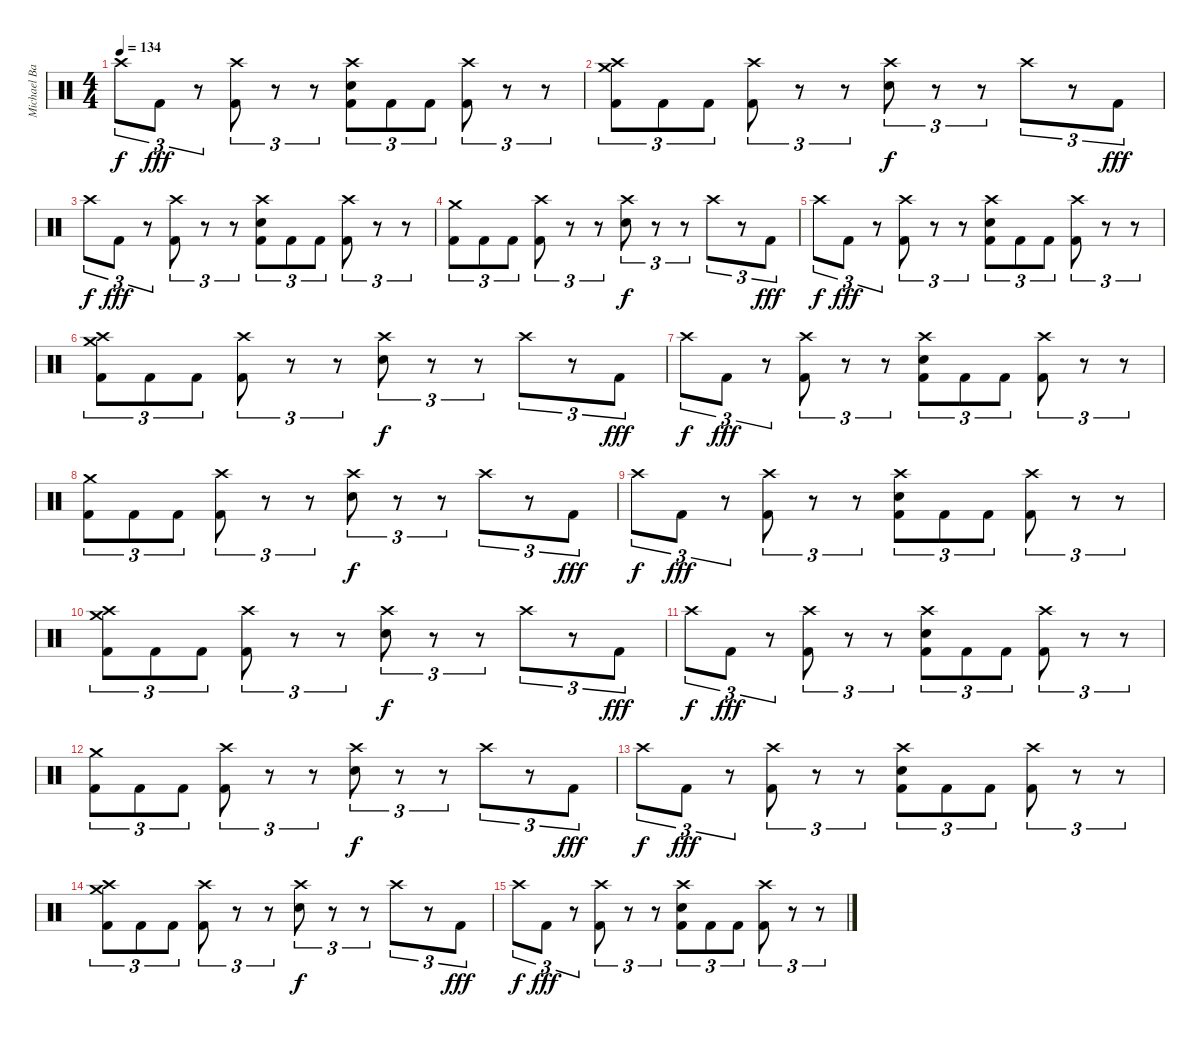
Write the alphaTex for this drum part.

\track ("Michael Bartlett " "Michael Ba") {instrument percussion}
\staff {score}
\articulation defaults
\ts (4 4)
\tempo 134
\clef neutral
\ks c "Crash high (hit)".8{tu (3 2) dy f} "Kick (hit) 2".8{tu (3 2) dy fff}
r.8{tu (3 2)} ("Crash high (hit)" "Kick (hit) 2").8{tu (3 2)} r.8{tu (3 2)} r.8{tu (3 2)} ("Crash high (hit)" "Electric Snare (hit)" "Kick (hit) 2").8{tu (3 2)} "Kick (hit) 2".8{tu (3 2)} "Kick (hit) 2".8{tu (3 2)} ("Crash high (hit)" "Kick (hit) 2").8{tu (3 2)} r.8{tu (3 2)} r.8{tu (3 2)} |
("Crash high (hit)" "Crash medium (hit)" "Kick (hit) 2").8{tu (3 2)} "Kick (hit) 2".8{tu (3 2)} "Kick (hit) 2".8{tu (3 2)} ("Crash high (hit)" "Kick (hit) 2").8{tu (3 2)} r.8{tu (3 2)} r.8{tu (3 2)} ("Crash high (hit)" "Electric Snare (hit)").8{tu (3 2) dy f} r.8{tu (3 2)} r.8{tu (3 2)} "Crash high (hit)".8{tu (3 2)} r.8{tu (3 2)} "Kick (hit) 2".8{tu (3 2) dy fff} |
"Crash high (hit)".8{tu (3 2) dy f} "Kick (hit) 2".8{tu (3 2) dy fff} r.8{tu (3 2)} ("Crash high (hit)" "Kick (hit) 2").8{tu (3 2)} r.8{tu (3 2)} r.8{tu (3 2)} ("Crash high (hit)" "Electric Snare (hit)" "Kick (hit) 2").8{tu (3 2)} "Kick (hit) 2".8{tu (3 2)} "Kick (hit) 2".8{tu (3 2)} ("Crash high (hit)" "Kick (hit) 2").8{tu (3 2)} r.8{tu (3 2)} r.8{tu (3 2)} |
("Crash medium (hit)" "Kick (hit) 2").8{tu (3 2)} "Kick (hit) 2".8{tu (3 2)} "Kick (hit) 2".8{tu (3 2)} ("Crash high (hit)" "Kick (hit) 2").8{tu (3 2)} r.8{tu (3 2)} r.8{tu (3 2)} ("Crash high (hit)" "Electric Snare (hit)").8{tu (3 2) dy f} r.8{tu (3 2)} r.8{tu (3 2)} "Crash high (hit)".8{tu (3 2)} r.8{tu (3 2)} "Kick (hit) 2".8{tu (3 2) dy fff} |
"Crash high (hit)".8{tu (3 2) dy f} "Kick (hit) 2".8{tu (3 2) dy fff} r.8{tu (3 2)} ("Crash high (hit)" "Kick (hit) 2").8{tu (3 2)} r.8{tu (3 2)} r.8{tu (3 2)} ("Crash high (hit)" "Electric Snare (hit)" "Kick (hit) 2").8{tu (3 2)} "Kick (hit) 2".8{tu (3 2)} "Kick (hit) 2".8{tu (3 2)} ("Crash high (hit)" "Kick (hit) 2").8{tu (3 2)} r.8{tu (3 2)} r.8{tu (3 2)} |
("Crash high (hit)" "Crash medium (hit)" "Kick (hit) 2").8{tu (3 2)} "Kick (hit) 2".8{tu (3 2)} "Kick (hit) 2".8{tu (3 2)} ("Crash high (hit)" "Kick (hit) 2").8{tu (3 2)} r.8{tu (3 2)} r.8{tu (3 2)} ("Crash high (hit)" "Electric Snare (hit)").8{tu (3 2) dy f} r.8{tu (3 2)} r.8{tu (3 2)} "Crash high (hit)".8{tu (3 2)} r.8{tu (3 2)} "Kick (hit) 2".8{tu (3 2) dy fff} |
"Crash high (hit)".8{tu (3 2) dy f} "Kick (hit) 2".8{tu (3 2) dy fff} r.8{tu (3 2)} ("Crash high (hit)" "Kick (hit) 2").8{tu (3 2)} r.8{tu (3 2)} r.8{tu (3 2)} ("Crash high (hit)" "Electric Snare (hit)" "Kick (hit) 2").8{tu (3 2)} "Kick (hit) 2".8{tu (3 2)} "Kick (hit) 2".8{tu (3 2)} ("Crash high (hit)" "Kick (hit) 2").8{tu (3 2)} r.8{tu (3 2)} r.8{tu (3 2)} |
("Crash medium (hit)" "Kick (hit) 2").8{tu (3 2)} "Kick (hit) 2".8{tu (3 2)} "Kick (hit) 2".8{tu (3 2)} ("Crash high (hit)" "Kick (hit) 2").8{tu (3 2)} r.8{tu (3 2)} r.8{tu (3 2)} ("Crash high (hit)" "Electric Snare (hit)").8{tu (3 2) dy f} r.8{tu (3 2)} r.8{tu (3 2)} "Crash high (hit)".8{tu (3 2)} r.8{tu (3 2)} "Kick (hit) 2".8{tu (3 2) dy fff} |
"Crash high (hit)".8{tu (3 2) dy f} "Kick (hit) 2".8{tu (3 2) dy fff} r.8{tu (3 2)} ("Crash high (hit)" "Kick (hit) 2").8{tu (3 2)} r.8{tu (3 2)} r.8{tu (3 2)} ("Crash high (hit)" "Electric Snare (hit)" "Kick (hit) 2").8{tu (3 2)} "Kick (hit) 2".8{tu (3 2)} "Kick (hit) 2".8{tu (3 2)} ("Crash high (hit)" "Kick (hit) 2").8{tu (3 2)} r.8{tu (3 2)} r.8{tu (3 2)} |
("Crash high (hit)" "Crash medium (hit)" "Kick (hit) 2").8{tu (3 2)} "Kick (hit) 2".8{tu (3 2)} "Kick (hit) 2".8{tu (3 2)} ("Crash high (hit)" "Kick (hit) 2").8{tu (3 2)} r.8{tu (3 2)} r.8{tu (3 2)} ("Crash high (hit)" "Electric Snare (hit)").8{tu (3 2) dy f} r.8{tu (3 2)} r.8{tu (3 2)} "Crash high (hit)".8{tu (3 2)} r.8{tu (3 2)} "Kick (hit) 2".8{tu (3 2) dy fff} |
"Crash high (hit)".8{tu (3 2) dy f} "Kick (hit) 2".8{tu (3 2) dy fff} r.8{tu (3 2)} ("Crash high (hit)" "Kick (hit) 2").8{tu (3 2)} r.8{tu (3 2)} r.8{tu (3 2)} ("Crash high (hit)" "Electric Snare (hit)" "Kick (hit) 2").8{tu (3 2)} "Kick (hit) 2".8{tu (3 2)} "Kick (hit) 2".8{tu (3 2)} ("Crash high (hit)" "Kick (hit) 2").8{tu (3 2)} r.8{tu (3 2)} r.8{tu (3 2)} |
("Crash medium (hit)" "Kick (hit) 2").8{tu (3 2)} "Kick (hit) 2".8{tu (3 2)} "Kick (hit) 2".8{tu (3 2)} ("Crash high (hit)" "Kick (hit) 2").8{tu (3 2)} r.8{tu (3 2)} r.8{tu (3 2)} ("Crash high (hit)" "Electric Snare (hit)").8{tu (3 2) dy f} r.8{tu (3 2)} r.8{tu (3 2)} "Crash high (hit)".8{tu (3 2)} r.8{tu (3 2)} "Kick (hit) 2".8{tu (3 2) dy fff} |
"Crash high (hit)".8{tu (3 2) dy f} "Kick (hit) 2".8{tu (3 2) dy fff} r.8{tu (3 2)} ("Crash high (hit)" "Kick (hit) 2").8{tu (3 2)} r.8{tu (3 2)} r.8{tu (3 2)} ("Crash high (hit)" "Electric Snare (hit)" "Kick (hit) 2").8{tu (3 2)} "Kick (hit) 2".8{tu (3 2)} "Kick (hit) 2".8{tu (3 2)} ("Crash high (hit)" "Kick (hit) 2").8{tu (3 2)} r.8{tu (3 2)} r.8{tu (3 2)} |
("Crash high (hit)" "Crash medium (hit)" "Kick (hit) 2").8{tu (3 2)} "Kick (hit) 2".8{tu (3 2)} "Kick (hit) 2".8{tu (3 2)} ("Crash high (hit)" "Kick (hit) 2").8{tu (3 2)} r.8{tu (3 2)} r.8{tu (3 2)} ("Crash high (hit)" "Electric Snare (hit)").8{tu (3 2) dy f} r.8{tu (3 2)} r.8{tu (3 2)} "Crash high (hit)".8{tu (3 2)} r.8{tu (3 2)} "Kick (hit) 2".8{tu (3 2) dy fff} |
"Crash high (hit)".8{tu (3 2) dy f} "Kick (hit) 2".8{tu (3 2) dy fff} r.8{tu (3 2)} ("Crash high (hit)" "Kick (hit) 2").8{tu (3 2)} r.8{tu (3 2)} r.8{tu (3 2)} ("Crash high (hit)" "Electric Snare (hit)" "Kick (hit) 2").8{tu (3 2)} "Kick (hit) 2".8{tu (3 2)} "Kick (hit) 2".8{tu (3 2)} ("Crash high (hit)" "Kick (hit) 2").8{tu (3 2)} r.8{tu (3 2)} r.8{tu (3 2)}
